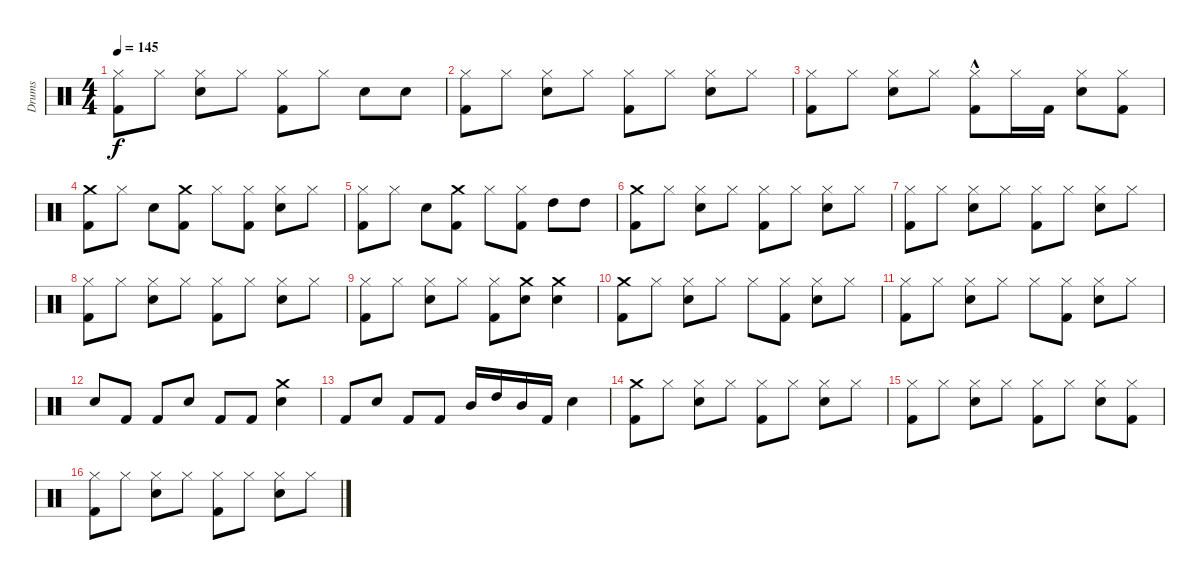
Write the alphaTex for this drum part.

\track ("Drums" "Drums") {instrument percussion}
\staff {score}
\articulation defaults
\ts (4 4)
\tempo 145
\clef neutral
\ks c
("Kick (hit) 2" "Hi-Hat (closed)").8{dy f} "Hi-Hat (closed)".8 ("Snare (hit) 2" "Hi-Hat (closed)").8 "Hi-Hat (closed)".8 ("Kick (hit) 2" "Hi-Hat (closed)").8 "Hi-Hat (closed)".8 "Snare (hit) 2".8 "Snare (hit) 2".8 |
("Kick (hit) 2" "Hi-Hat (closed)").8 "Hi-Hat (closed)".8 ("Snare (hit) 2" "Hi-Hat (closed)").8 "Hi-Hat (closed)".8 ("Kick (hit) 2" "Hi-Hat (closed)").8 "Hi-Hat (closed)".8 ("Snare (hit) 2" "Hi-Hat (closed)").8 "Hi-Hat (closed)".8 |
("Kick (hit) 2" "Hi-Hat (closed)").8 "Hi-Hat (closed)".8 ("Snare (hit) 2" "Hi-Hat (closed)").8 "Hi-Hat (closed)".8 ("Kick (hit) 2"{hac} "Hi-Hat (closed)").8 "Hi-Hat (closed)".16 "Kick (hit) 2".16 ("Snare (hit) 2" "Hi-Hat (closed)").8 ("Kick (hit) 2" "Hi-Hat (closed)").8 |
("Kick (hit) 2" "Crash medium (hit)").8 "Hi-Hat (closed)".8 "Snare (hit) 2".8 ("Kick (hit) 2" "Crash medium (hit)").8 "Hi-Hat (closed)".8 ("Kick (hit) 2" "Hi-Hat (closed)").8 ("Snare (hit) 2" "Hi-Hat (closed)").8 "Hi-Hat (closed)".8 |
("Hi-Hat (closed)" "Kick (hit) 2").8 "Hi-Hat (closed)".8 "Snare (hit) 2".8 ("Kick (hit) 2" "Crash medium (hit)").8 "Hi-Hat (closed)".8 ("Kick (hit) 2" "Hi-Hat (closed)").8 "High Tom (hit)".8 "High Tom (hit)".8 |
("Crash medium (hit)" "Kick (hit) 2").8 "Hi-Hat (closed)".8 ("Snare (hit) 2" "Hi-Hat (closed)").8 "Hi-Hat (closed)".8 ("Hi-Hat (closed)" "Kick (hit) 2").8 "Hi-Hat (closed)".8 ("Snare (hit) 2" "Hi-Hat (closed)").8 "Hi-Hat (closed)".8 |
("Hi-Hat (closed)" "Kick (hit) 2").8 "Hi-Hat (closed)".8 ("Hi-Hat (closed)" "Snare (hit) 2").8 "Hi-Hat (closed)".8 ("Hi-Hat (closed)" "Kick (hit) 2").8 "Hi-Hat (closed)".8 ("Hi-Hat (closed)" "Snare (hit) 2").8 "Hi-Hat (closed)".8 |
("Hi-Hat (closed)" "Kick (hit) 2").8 "Hi-Hat (closed)".8 ("Hi-Hat (closed)" "Snare (hit) 2").8 "Hi-Hat (closed)".8 ("Hi-Hat (closed)" "Kick (hit) 2").8 "Hi-Hat (closed)".8 ("Hi-Hat (closed)" "Snare (hit) 2").8 "Hi-Hat (closed)".8 |
("Hi-Hat (closed)" "Kick (hit) 2").8 "Hi-Hat (closed)".8 ("Hi-Hat (closed)" "Snare (hit) 2").8 "Hi-Hat (closed)".8 ("Hi-Hat (closed)" "Kick (hit) 2").8 ("Snare (hit) 2" "Crash medium (hit)").8 ("Crash medium (hit)" "Snare (hit) 2").4 |
("Kick (hit) 2" "Crash medium (hit)").8 "Hi-Hat (closed)".8 ("Snare (hit) 2" "Hi-Hat (closed)").8 "Hi-Hat (closed)".8 "Hi-Hat (closed)".8 ("Kick (hit) 2" "Hi-Hat (closed)").8 ("Snare (hit) 2" "Hi-Hat (closed)").8 "Hi-Hat (closed)".8 |
("Kick (hit) 2" "Hi-Hat (closed)").8 "Hi-Hat (closed)".8 ("Snare (hit) 2" "Hi-Hat (closed)").8 "Hi-Hat (closed)".8 "Hi-Hat (closed)".8 ("Kick (hit) 2" "Hi-Hat (closed)").8 ("Snare (hit) 2" "Hi-Hat (closed)").8 "Hi-Hat (closed)".8 |
"Snare (hit) 2".8 "Kick (hit) 2".8 "Kick (hit) 2".8 "Snare (hit) 2".8 "Kick (hit) 2".8 "Kick (hit) 2".8 ("Crash medium (hit)" "Snare (hit) 2").4 |
"Kick (hit) 2".8 "Electric Snare (hit)".8 "Kick (hit) 2".8 "Kick (hit) 2".8 "Mid Tom (hit)".16 "High Tom (hit)".16 "Mid Tom (hit)".16 "Kick (hit) 2".16 "Snare (hit) 2".4 |
("Crash medium (hit)" "Kick (hit) 2").8 "Hi-Hat (closed)".8 ("Snare (hit) 2" "Hi-Hat (closed)").8 "Hi-Hat (closed)".8 ("Hi-Hat (closed)" "Kick (hit) 2").8 "Hi-Hat (closed)".8 ("Snare (hit) 2" "Hi-Hat (closed)").8 "Hi-Hat (closed)".8 |
("Hi-Hat (closed)" "Kick (hit) 2").8 "Hi-Hat (closed)".8 ("Hi-Hat (closed)" "Snare (hit) 2").8 "Hi-Hat (closed)".8 ("Hi-Hat (closed)" "Kick (hit) 2").8 "Hi-Hat (closed)".8 ("Hi-Hat (closed)" "Snare (hit) 2").8 ("Hi-Hat (closed)" "Kick (hit) 2").8 |
("Hi-Hat (closed)" "Kick (hit) 2").8 "Hi-Hat (closed)".8 ("Hi-Hat (closed)" "Snare (hit) 2").8 "Hi-Hat (closed)".8 ("Hi-Hat (closed)" "Kick (hit) 2").8 "Hi-Hat (closed)".8 ("Hi-Hat (closed)" "Snare (hit) 2").8 "Hi-Hat (closed)".8
